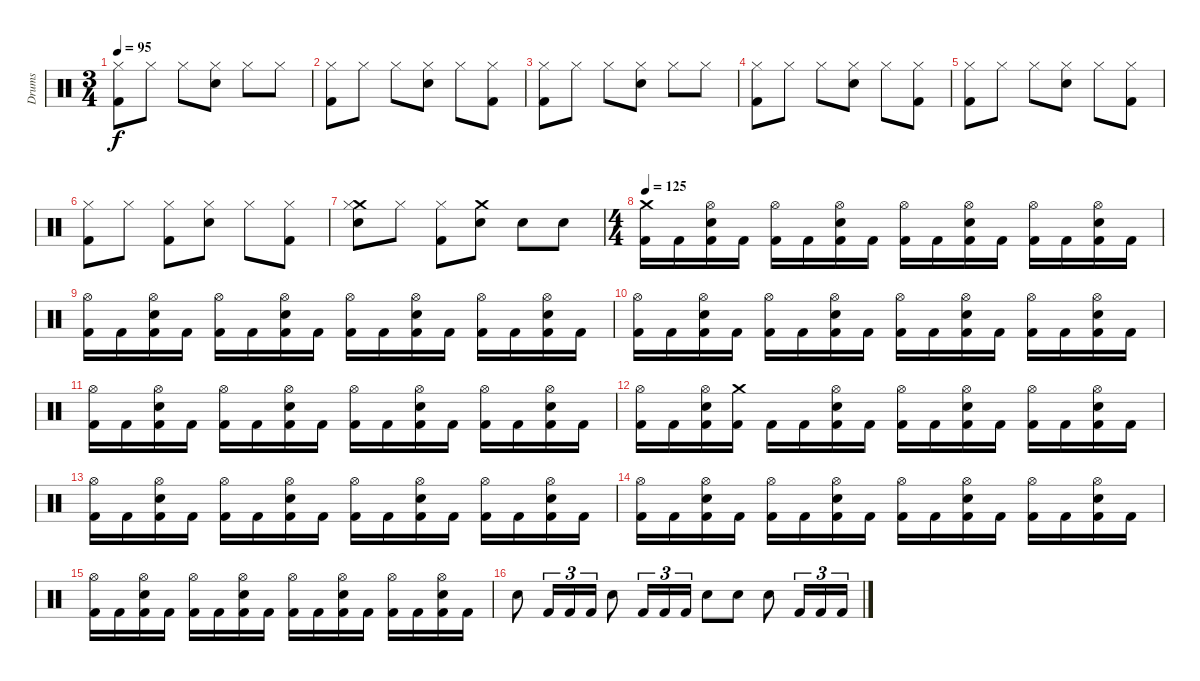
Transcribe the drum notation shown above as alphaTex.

\track ("Drums" "Drums") {instrument percussion}
\staff {score}
\articulation defaults
\ts (3 4)
\tempo 95
\clef neutral
\ks c
("Hi-Hat (closed)" "Kick (hit) 2").8{dy f} "Hi-Hat (closed)".8 "Hi-Hat (closed)".8 ("Hi-Hat (closed)" "Electric Snare (hit)").8 "Hi-Hat (closed)".8 "Hi-Hat (closed)".8 |
("Hi-Hat (closed)" "Kick (hit) 2").8 "Hi-Hat (closed)".8 "Hi-Hat (closed)".8 ("Hi-Hat (closed)" "Electric Snare (hit)").8 "Hi-Hat (closed)".8 ("Hi-Hat (closed)" "Kick (hit) 2").8 |
("Hi-Hat (closed)" "Kick (hit) 2").8 "Hi-Hat (closed)".8 "Hi-Hat (closed)".8 ("Hi-Hat (closed)" "Electric Snare (hit)").8 "Hi-Hat (closed)".8 "Hi-Hat (closed)".8 |
("Hi-Hat (closed)" "Kick (hit) 2").8 "Hi-Hat (closed)".8 "Hi-Hat (closed)".8 ("Hi-Hat (closed)" "Electric Snare (hit)").8 "Hi-Hat (closed)".8 ("Hi-Hat (closed)" "Kick (hit) 2").8 |
("Hi-Hat (closed)" "Kick (hit) 2").8 "Hi-Hat (closed)".8 "Hi-Hat (closed)".8 ("Hi-Hat (closed)" "Electric Snare (hit)").8 "Hi-Hat (closed)".8 ("Hi-Hat (closed)" "Kick (hit) 2").8 |
("Hi-Hat (closed)" "Kick (hit) 2").8 "Hi-Hat (closed)".8 ("Hi-Hat (closed)" "Kick (hit) 2").8 ("Hi-Hat (closed)" "Electric Snare (hit)").8 "Hi-Hat (closed)".8 ("Hi-Hat (closed)" "Kick (hit) 2").8 |
("Crash medium (hit)" "Hi-Hat (closed)" "Electric Snare (hit)").8 "Hi-Hat (closed)".8 ("Hi-Hat (closed)" "Kick (hit) 2").8 ("Crash medium (hit)" "Electric Snare (hit)").8 "Electric Snare (hit)".8 "Electric Snare (hit)".8 |
\ts (4 4)
\tempo 125
("Crash medium (hit)" "Kick (hit) 2").16 "Kick (hit) 2".16 ("Hi-Hat (open)" "Electric Snare (hit)" "Kick (hit) 2").16 "Kick (hit) 2".16 ("Hi-Hat (open)" "Kick (hit) 2").16 "Kick (hit) 2".16 ("Hi-Hat (open)" "Electric Snare (hit)" "Kick (hit) 2").16 "Kick (hit) 2".16 ("Hi-Hat (open)" "Kick (hit) 2").16 "Kick (hit) 2".16 ("Hi-Hat (open)" "Electric Snare (hit)" "Kick (hit) 2").16 "Kick (hit) 2".16 ("Hi-Hat (open)" "Kick (hit) 2").16 "Kick (hit) 2".16 ("Hi-Hat (open)" "Electric Snare (hit)" "Kick (hit) 2").16 "Kick (hit) 2".16 |
("Hi-Hat (open)" "Kick (hit) 2").16 "Kick (hit) 2".16 ("Hi-Hat (open)" "Electric Snare (hit)" "Kick (hit) 2").16 "Kick (hit) 2".16 ("Hi-Hat (open)" "Kick (hit) 2").16 "Kick (hit) 2".16 ("Hi-Hat (open)" "Electric Snare (hit)" "Kick (hit) 2").16 "Kick (hit) 2".16 ("Hi-Hat (open)" "Kick (hit) 2").16 "Kick (hit) 2".16 ("Hi-Hat (open)" "Electric Snare (hit)" "Kick (hit) 2").16 "Kick (hit) 2".16 ("Hi-Hat (open)" "Kick (hit) 2").16 "Kick (hit) 2".16 ("Hi-Hat (open)" "Electric Snare (hit)" "Kick (hit) 2").16 "Kick (hit) 2".16 |
("Hi-Hat (open)" "Kick (hit) 2").16 "Kick (hit) 2".16 ("Hi-Hat (open)" "Electric Snare (hit)" "Kick (hit) 2").16 "Kick (hit) 2".16 ("Hi-Hat (open)" "Kick (hit) 2").16 "Kick (hit) 2".16 ("Hi-Hat (open)" "Electric Snare (hit)" "Kick (hit) 2").16 "Kick (hit) 2".16 ("Hi-Hat (open)" "Kick (hit) 2").16 "Kick (hit) 2".16 ("Hi-Hat (open)" "Electric Snare (hit)" "Kick (hit) 2").16 "Kick (hit) 2".16 ("Hi-Hat (open)" "Kick (hit) 2").16 "Kick (hit) 2".16 ("Hi-Hat (open)" "Electric Snare (hit)" "Kick (hit) 2").16 "Kick (hit) 2".16 |
("Hi-Hat (open)" "Kick (hit) 2").16 "Kick (hit) 2".16 ("Hi-Hat (open)" "Electric Snare (hit)" "Kick (hit) 2").16 "Kick (hit) 2".16 ("Hi-Hat (open)" "Kick (hit) 2").16 "Kick (hit) 2".16 ("Hi-Hat (open)" "Electric Snare (hit)" "Kick (hit) 2").16 "Kick (hit) 2".16 ("Hi-Hat (open)" "Kick (hit) 2").16 "Kick (hit) 2".16 ("Hi-Hat (open)" "Electric Snare (hit)" "Kick (hit) 2").16 "Kick (hit) 2".16 ("Hi-Hat (open)" "Kick (hit) 2").16 "Kick (hit) 2".16 ("Hi-Hat (open)" "Electric Snare (hit)" "Kick (hit) 2").16 "Kick (hit) 2".16 |
("Hi-Hat (open)" "Kick (hit) 2").16 "Kick (hit) 2".16 ("Hi-Hat (open)" "Electric Snare (hit)" "Kick (hit) 2").16 ("Crash medium (hit)" "Kick (hit) 2").16 "Kick (hit) 2".16 "Kick (hit) 2".16 ("Hi-Hat (open)" "Electric Snare (hit)" "Kick (hit) 2").16 "Kick (hit) 2".16 ("Hi-Hat (open)" "Kick (hit) 2").16 "Kick (hit) 2".16 ("Hi-Hat (open)" "Electric Snare (hit)" "Kick (hit) 2").16 "Kick (hit) 2".16 ("Hi-Hat (open)" "Kick (hit) 2").16 "Kick (hit) 2".16 ("Hi-Hat (open)" "Electric Snare (hit)" "Kick (hit) 2").16 "Kick (hit) 2".16 |
("Hi-Hat (open)" "Kick (hit) 2").16 "Kick (hit) 2".16 ("Hi-Hat (open)" "Electric Snare (hit)" "Kick (hit) 2").16 "Kick (hit) 2".16 ("Hi-Hat (open)" "Kick (hit) 2").16 "Kick (hit) 2".16 ("Hi-Hat (open)" "Electric Snare (hit)" "Kick (hit) 2").16 "Kick (hit) 2".16 ("Hi-Hat (open)" "Kick (hit) 2").16 "Kick (hit) 2".16 ("Hi-Hat (open)" "Electric Snare (hit)" "Kick (hit) 2").16 "Kick (hit) 2".16 ("Hi-Hat (open)" "Kick (hit) 2").16 "Kick (hit) 2".16 ("Hi-Hat (open)" "Electric Snare (hit)" "Kick (hit) 2").16 "Kick (hit) 2".16 |
("Hi-Hat (open)" "Kick (hit) 2").16 "Kick (hit) 2".16 ("Hi-Hat (open)" "Electric Snare (hit)" "Kick (hit) 2").16 "Kick (hit) 2".16 ("Hi-Hat (open)" "Kick (hit) 2").16 "Kick (hit) 2".16 ("Hi-Hat (open)" "Electric Snare (hit)" "Kick (hit) 2").16 "Kick (hit) 2".16 ("Hi-Hat (open)" "Kick (hit) 2").16 "Kick (hit) 2".16 ("Hi-Hat (open)" "Electric Snare (hit)" "Kick (hit) 2").16 "Kick (hit) 2".16 ("Hi-Hat (open)" "Kick (hit) 2").16 "Kick (hit) 2".16 ("Hi-Hat (open)" "Electric Snare (hit)" "Kick (hit) 2").16 "Kick (hit) 2".16 |
("Hi-Hat (open)" "Kick (hit) 2").16 "Kick (hit) 2".16 ("Hi-Hat (open)" "Electric Snare (hit)" "Kick (hit) 2").16 "Kick (hit) 2".16 ("Hi-Hat (open)" "Kick (hit) 2").16 "Kick (hit) 2".16 ("Hi-Hat (open)" "Electric Snare (hit)" "Kick (hit) 2").16 "Kick (hit) 2".16 ("Hi-Hat (open)" "Kick (hit) 2").16 "Kick (hit) 2".16 ("Hi-Hat (open)" "Electric Snare (hit)" "Kick (hit) 2").16 "Kick (hit) 2".16 ("Hi-Hat (open)" "Kick (hit) 2").16 "Kick (hit) 2".16 ("Hi-Hat (open)" "Electric Snare (hit)" "Kick (hit) 2").16 "Kick (hit) 2".16 |
"Electric Snare (hit)".8 "Kick (hit) 2".16{tu (3 2)} "Kick (hit) 2".16{tu (3 2)} "Kick (hit) 2".16{tu (3 2)} "Electric Snare (hit)".8 "Kick (hit) 2".16{tu (3 2)} "Kick (hit) 2".16{tu (3 2)} "Kick (hit) 2".16{tu (3 2)} "Electric Snare (hit)".8 "Electric Snare (hit)".8 "Electric Snare (hit)".8 "Kick (hit) 2".16{tu (3 2)} "Kick (hit) 2".16{tu (3 2)} "Kick (hit) 2".16{tu (3 2)}
